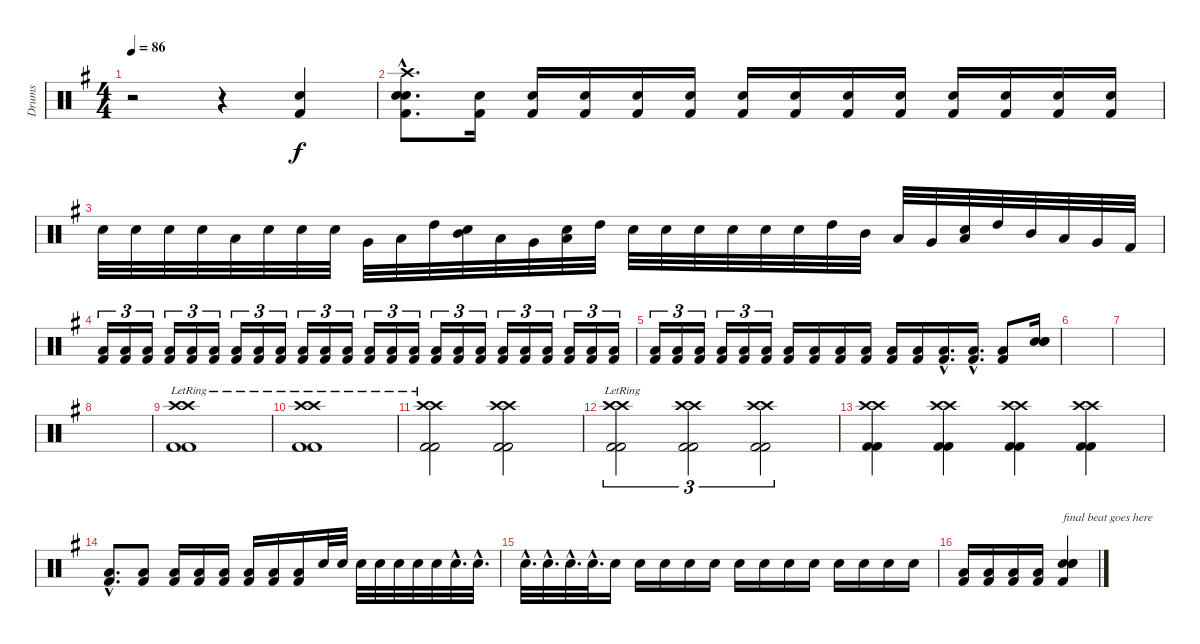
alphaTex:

\track ("Drums" "Drums") {instrument percussion}
\staff {score}
\articulation defaults
\ts (4 4)
\tempo 86
\clef neutral
\ks eminor
r.2{dy f} r.4 ("Kick (hit) 2" "Electric Snare (hit)").4 |
("Kick (hit) 2"{hac} "Electric Snare (hit)"{hac} "Electric Snare (hit)"{hac} "Crash high (hit)"{hac}).8{d} ("Kick (hit) 2" "Snare (hit) 2").16 ("Kick (hit) 2" "Snare (hit) 2").16 ("Kick (hit) 2" "Snare (hit) 2").16 ("Kick (hit) 2" "Snare (hit) 2").16 ("Kick (hit) 2" "Snare (hit) 2").16 ("Kick (hit) 2" "Snare (hit) 2").16 ("Kick (hit) 2" "Snare (hit) 2").16 ("Kick (hit) 2" "Snare (hit) 2").16 ("Kick (hit) 2" "Snare (hit) 2").16 ("Kick (hit) 2" "Snare (hit) 2").16 ("Kick (hit) 2" "Snare (hit) 2").16 ("Kick (hit) 2" "Snare (hit) 2").16 ("Kick (hit) 2" "Snare (hit) 2").16 |
"Snare (hit) 2".32 "Snare (hit) 2".32 "Snare (hit) 2".32 "Snare (hit) 2".32 "Low Floor Tom (hit)".32 "Snare (hit) 2".32 "Snare (hit) 2".32 "Electric Snare (hit)".32 "Very Low Tom (hit)".32 "Low Floor Tom (hit)".32 "High Tom (hit)".32 ("Mid Tom (hit)" "Snare (hit) 2").32 "Low Tom (hit)".32 "Very Low Tom (hit)".32 ("Low Floor Tom (hit)" "Snare (hit) 2").32 "High Tom (hit)".32 "Snare (hit) 2".32 "Snare (hit) 2".32 "Electric Snare (hit)".32 "Snare (hit) 2".32 "Snare (hit) 2".32 "Snare (hit) 2".32 "High Tom (hit)".32 "Mid Tom (hit)".32 "Low Tom (hit)".32 "Very Low Tom (hit)".32 ("Low Floor Tom (hit)" "Snare (hit) 2").32 "High Tom (hit)".32 "Mid Tom (hit)".32 "Low Tom (hit)".32 "Very Low Tom (hit)".32 "Kick (hit) 2".32 |
("Kick (hit) 2" "Low Floor Tom (hit)").16{tu (3 2)} ("Kick (hit) 2" "Low Floor Tom (hit)").16{tu (3 2)} ("Kick (hit) 2" "Low Floor Tom (hit)").16{tu (3 2)} ("Kick (hit) 2" "Low Floor Tom (hit)").16{tu (3 2)} ("Kick (hit) 2" "Low Floor Tom (hit)").16{tu (3 2)} ("Kick (hit) 2" "Low Floor Tom (hit)").16{tu (3 2)} ("Kick (hit) 2" "Low Floor Tom (hit)").16{tu (3 2)} ("Kick (hit) 2" "Low Floor Tom (hit)").16{tu (3 2)} ("Kick (hit) 2" "Low Floor Tom (hit)").16{tu (3 2)} ("Kick (hit) 2" "Low Floor Tom (hit)").16{tu (3 2)} ("Kick (hit) 2" "Low Floor Tom (hit)").16{tu (3 2)} ("Kick (hit) 2" "Low Floor Tom (hit)").16{tu (3 2)} ("Kick (hit) 2" "Low Floor Tom (hit)").16{tu (3 2)} ("Kick (hit) 2" "Low Floor Tom (hit)").16{tu (3 2)} ("Kick (hit) 2" "Low Floor Tom (hit)").16{tu (3 2)} ("Kick (hit) 2" "Low Floor Tom (hit)").16{tu (3 2)} ("Kick (hit) 2" "Low Floor Tom (hit)").16{tu (3 2)} ("Kick (hit) 2" "Low Floor Tom (hit)").16{tu (3 2)} ("Kick (hit) 2" "Low Floor Tom (hit)").16{tu (3 2)} ("Kick (hit) 2" "Low Floor Tom (hit)").16{tu (3 2)} ("Kick (hit) 2" "Low Floor Tom (hit)").16{tu (3 2)} ("Kick (hit) 2" "Low Floor Tom (hit)").16{tu (3 2)} ("Kick (hit) 2" "Low Floor Tom (hit)").16{tu (3 2)} ("Kick (hit) 2" "Low Floor Tom (hit)").16{tu (3 2)} |
("Kick (hit) 2" "Low Floor Tom (hit)").16{tu (3 2)} ("Kick (hit) 2" "Low Floor Tom (hit)").16{tu (3 2)} ("Kick (hit) 2" "Low Floor Tom (hit)").16{tu (3 2)} ("Kick (hit) 2" "Low Floor Tom (hit)").16{tu (3 2)} ("Kick (hit) 2" "Low Floor Tom (hit)").16{tu (3 2)} ("Kick (hit) 2" "Low Floor Tom (hit)").16{tu (3 2)} ("Kick (hit) 2" "Low Floor Tom (hit)").16 ("Kick (hit) 2" "Low Floor Tom (hit)").16 ("Kick (hit) 2" "Low Floor Tom (hit)").16 ("Kick (hit) 2" "Low Floor Tom (hit)").16 ("Kick (hit) 2" "Low Floor Tom (hit)").16 ("Kick (hit) 2" "Low Floor Tom (hit)").16 ("Kick (hit) 2"{hac} "Low Floor Tom (hit)"{hac}).16{d} ("Kick (hit) 2"{hac} "Low Floor Tom (hit)"{hac}).16{d} ("Kick (hit) 2" "Low Floor Tom (hit)").8 ("Electric Snare (hit)" "Electric Snare (hit)" "Snare (hit) 2").16 |
|
|
|
("Kick (hit) 2" "Crash high (hit)"{lr} "Crash high (hit)"{lr} "Kick (hit) 2").1 |
("Kick (hit) 2" "Crash high (hit)"{lr} "Crash high (hit)"{lr} "Kick (hit) 2").1 |
("Kick (hit) 2" "Crash high (hit)"{lr} "Crash high (hit)"{lr} "Kick (hit) 2").2 ("Kick (hit) 2" "Crash high (hit)" "Crash high (hit)" "Kick (hit) 2").2 |
("Kick (hit) 2" "Crash high (hit)"{lr} "Crash high (hit)"{lr} "Kick (hit) 2").2{tu (3 2)} ("Kick (hit) 2" "Crash high (hit)" "Crash high (hit)" "Kick (hit) 2").2{tu (3 2)} ("Kick (hit) 2" "Crash high (hit)" "Crash high (hit)" "Kick (hit) 2").2{tu (3 2)} |
("Kick (hit) 2" "Crash high (hit)" "Crash high (hit)" "Kick (hit) 2").4 ("Kick (hit) 2" "Crash high (hit)" "Crash high (hit)" "Kick (hit) 2").4 ("Kick (hit) 2" "Crash high (hit)" "Crash high (hit)" "Kick (hit) 2").4 ("Kick (hit) 2" "Crash high (hit)" "Crash high (hit)" "Kick (hit) 2").4 |
("Low Floor Tom (hit)"{hac} "Kick (hit) 2"{hac}).8{d} ("Low Floor Tom (hit)" "Kick (hit) 2").8 ("Low Floor Tom (hit)" "Kick (hit) 2").16 ("Low Floor Tom (hit)" "Kick (hit) 2").16 ("Low Floor Tom (hit)" "Kick (hit) 2").16 ("Low Floor Tom (hit)" "Kick (hit) 2").16 ("Low Floor Tom (hit)" "Kick (hit) 2").16 ("Low Floor Tom (hit)" "Kick (hit) 2").16 "Snare (hit) 2".32 "Snare (hit) 2".32 "Snare (hit) 2".32 "Snare (hit) 2".32 "Snare (hit) 2".32 "Snare (hit) 2".32 "Snare (hit) 2".32 "Snare (hit) 2"{hac}.32{d} "Snare (hit) 2"{hac}.32{d} |
"Snare (hit) 2"{hac}.32{d} "Snare (hit) 2"{hac}.32{d} "Snare (hit) 2"{hac}.32{d} "Snare (hit) 2"{hac}.32{d} "Snare (hit) 2".16 "Snare (hit) 2".16 "Snare (hit) 2".16 "Snare (hit) 2".16 "Snare (hit) 2".16 "Snare (hit) 2".16 "Snare (hit) 2".16 "Snare (hit) 2".16 "Snare (hit) 2".16 "Snare (hit) 2".16 "Snare (hit) 2".16 "Snare (hit) 2".16 "Snare (hit) 2".16 |
("Low Floor Tom (hit)" "Kick (hit) 2").16 ("Low Floor Tom (hit)" "Kick (hit) 2").16 ("Low Floor Tom (hit)" "Kick (hit) 2").16 ("Low Floor Tom (hit)" "Kick (hit) 2").16 ("Kick (hit) 2" "Snare (hit) 2" "Snare (hit) 2" "Snare (hit) 2").4{txt "final beat goes here"}
